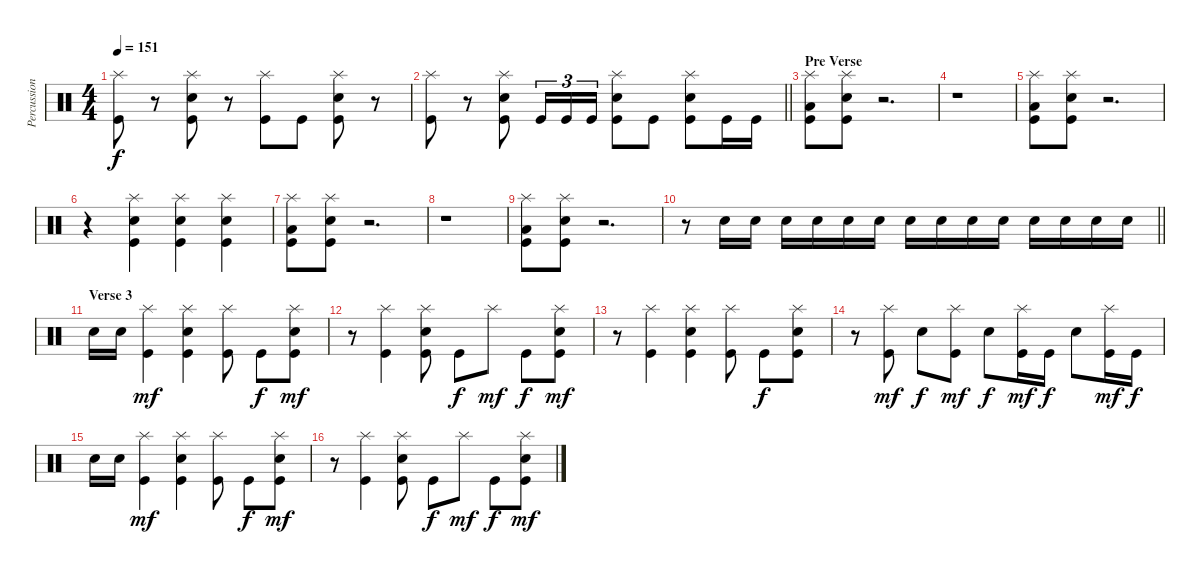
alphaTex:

\track ("Percussion" "Percussion") {instrument percussion}
\staff {score}
\articulation defaults
\ts (4 4)
\tempo 151
\clef neutral
\ks c
("Splash (hit)" "Kick (hit)").8{dy f} r.8 ("Splash (hit)" "Snare (hit) 2" "Kick (hit)").8 r.8 ("Splash (hit)" "Kick (hit)").8 "Kick (hit)".8 ("Splash (hit)" "Snare (hit) 2" "Kick (hit)").8 r.8 |
\barLineRight lightlight
("Splash (hit)" "Kick (hit)").8 r.8 ("Splash (hit)" "Snare (hit) 2" "Kick (hit)").8 "Kick (hit)".16{tu (3 2)} "Kick (hit)".16{tu (3 2)} "Kick (hit)".16{tu (3 2)} ("Splash (hit)" "Snare (hit) 2" "Kick (hit)").8 "Kick (hit)".8 ("Splash (hit)" "Snare (hit) 2" "Kick (hit)").8 "Kick (hit)".16 "Kick (hit)".16 |
\section ("" "Pre Verse")
("Splash (hit)" "Low Tom (hit)" "Kick (hit)").8 ("Splash (hit)" "Snare (hit) 2" "Kick (hit)").8 r.2{d} |
r.1 |
("Splash (hit)" "Low Tom (hit)" "Kick (hit)").8 ("Splash (hit)" "Snare (hit) 2" "Kick (hit)").8 r.2{d} |
r.4 ("Splash (hit)" "Electric Snare (hit)" "Kick (hit)").4 ("Splash (hit)" "Snare (hit) 2" "Kick (hit)").4 ("Splash (hit)" "Electric Snare (hit)" "Kick (hit)").4 |
("Splash (hit)" "Low Tom (hit)" "Kick (hit)").8 ("Splash (hit)" "Snare (hit) 2" "Kick (hit)").8 r.2{d} |
r.1 |
("Splash (hit)" "Low Tom (hit)" "Kick (hit)").8 ("Splash (hit)" "Snare (hit) 2" "Kick (hit)").8 r.2{d} |
\barLineRight lightlight
r.8 "Electric Snare (hit)".16 "Electric Snare (hit)".16 "Electric Snare (hit)".16 "Electric Snare (hit)".16 "Electric Snare (hit)".16 "Electric Snare (hit)".16 "Electric Snare (hit)".16 "Electric Snare (hit)".16 "Electric Snare (hit)".16 "Electric Snare (hit)".16 "Electric Snare (hit)".16 "Electric Snare (hit)".16 "Electric Snare (hit)".16 "Electric Snare (hit)".16 |
\section ("" "Verse 3")
"Electric Snare (hit)".16 "Electric Snare (hit)".16 ("Splash (hit)" "Kick (hit)").4{dy mf} ("Splash (hit)" "Snare (hit) 2" "Kick (hit)").4 ("Splash (hit)" "Kick (hit)").8 "Kick (hit)".8{dy f} ("Splash (hit)" "Snare (hit) 2" "Kick (hit)").8{dy mf} |
r.8 ("Splash (hit)" "Kick (hit)").4 ("Splash (hit)" "Snare (hit) 2" "Kick (hit)").8 "Kick (hit)".8{dy f} "Splash (hit)".8{dy mf} "Kick (hit)".8{dy f} ("Splash (hit)" "Snare (hit) 2" "Kick (hit)").8{dy mf} |
r.8 ("Splash (hit)" "Kick (hit)").4 ("Splash (hit)" "Snare (hit) 2" "Kick (hit)").4 ("Splash (hit)" "Kick (hit)").8 "Kick (hit)".8{dy f} ("Splash (hit)" "Snare (hit) 2" "Kick (hit)").8 |
r.8 ("Splash (hit)" "Kick (hit)").8{dy mf} "Snare (hit) 2".8{dy f} ("Splash (hit)" "Kick (hit)").8{dy mf} "Snare (hit) 2".8{dy f} ("Splash (hit)" "Kick (hit)").16{dy mf} "Kick (hit)".16{dy f} "Snare (hit) 2".8 ("Splash (hit)" "Kick (hit)").16{dy mf} "Kick (hit)".16{dy f} |
"Electric Snare (hit)".16 "Electric Snare (hit)".16 ("Splash (hit)" "Kick (hit)").4{dy mf} ("Splash (hit)" "Snare (hit) 2" "Kick (hit)").4 ("Splash (hit)" "Kick (hit)").8 "Kick (hit)".8{dy f} ("Splash (hit)" "Snare (hit) 2" "Kick (hit)").8{dy mf} |
r.8 ("Splash (hit)" "Kick (hit)").4 ("Splash (hit)" "Snare (hit) 2" "Kick (hit)").8 "Kick (hit)".8{dy f} "Splash (hit)".8{dy mf} "Kick (hit)".8{dy f} ("Splash (hit)" "Snare (hit) 2" "Kick (hit)").8{dy mf}
